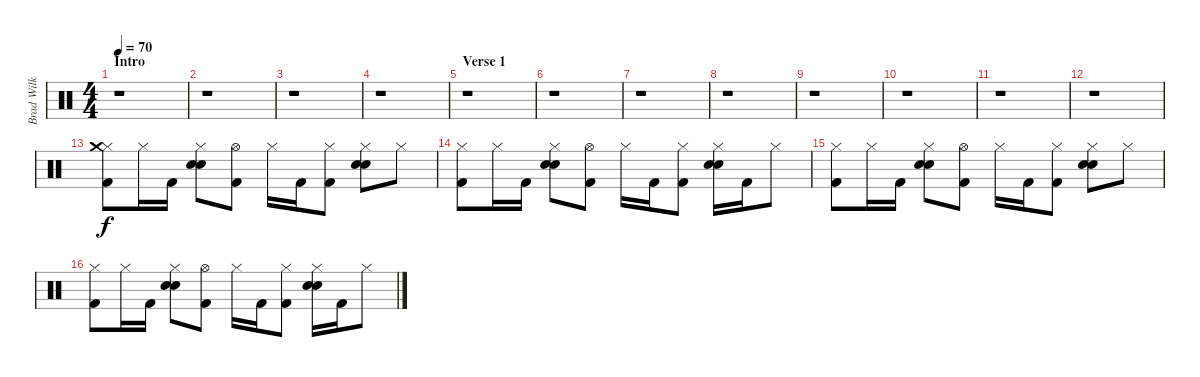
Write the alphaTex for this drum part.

\track ("Brad Wilk (percussion)" "Brad Wilk ") {instrument percussion}
\staff {score}
\articulation defaults
\ts (4 4)
\section ("" "Intro")
\tempo 70
\clef neutral
\ks c
r.1{dy f} |
r.1 |
r.1 |
r.1 |
\section ("" "Verse 1")
r.1 |
r.1 |
r.1 |
r.1 |
r.1 |
r.1 |
r.1 |
r.1 |
("Hi-Hat (closed)" "Crash medium (hit)" "Kick (hit) 2").8 "Hi-Hat (closed)".16 "Kick (hit) 2".16 ("Hi-Hat (closed)" "Electric Snare (hit)" "Electric Snare (hit)").8 ("Hi-Hat (open)" "Kick (hit) 2").8 "Hi-Hat (closed)".16 "Kick (hit) 2".16 ("Hi-Hat (closed)" "Kick (hit) 2").8 ("Hi-Hat (closed)" "Electric Snare (hit)" "Electric Snare (hit)").8 "Hi-Hat (closed)".8 |
("Hi-Hat (closed)" "Kick (hit) 2").8 "Hi-Hat (closed)".16 "Kick (hit) 2".16 ("Hi-Hat (closed)" "Electric Snare (hit)" "Electric Snare (hit)").8 ("Hi-Hat (open)" "Kick (hit) 2").8 "Hi-Hat (closed)".16 "Kick (hit) 2".16 ("Hi-Hat (closed)" "Kick (hit) 2").8 ("Hi-Hat (closed)" "Electric Snare (hit)" "Electric Snare (hit)").16 "Kick (hit) 2".16 "Hi-Hat (closed)".8 |
("Hi-Hat (closed)" "Kick (hit) 2").8 "Hi-Hat (closed)".16 "Kick (hit) 2".16 ("Hi-Hat (closed)" "Electric Snare (hit)" "Electric Snare (hit)").8 ("Hi-Hat (open)" "Kick (hit) 2").8 "Hi-Hat (closed)".16 "Kick (hit) 2".16 ("Hi-Hat (closed)" "Kick (hit) 2").8 ("Hi-Hat (closed)" "Electric Snare (hit)" "Electric Snare (hit)").8 "Hi-Hat (closed)".8 |
("Hi-Hat (closed)" "Kick (hit) 2").8 "Hi-Hat (closed)".16 "Kick (hit) 2".16 ("Hi-Hat (closed)" "Electric Snare (hit)" "Electric Snare (hit)").8 ("Hi-Hat (open)" "Kick (hit) 2").8 "Hi-Hat (closed)".16 "Kick (hit) 2".16 ("Hi-Hat (closed)" "Kick (hit) 2").8 ("Hi-Hat (closed)" "Electric Snare (hit)" "Electric Snare (hit)").16 "Kick (hit) 2".16 "Hi-Hat (closed)".8
